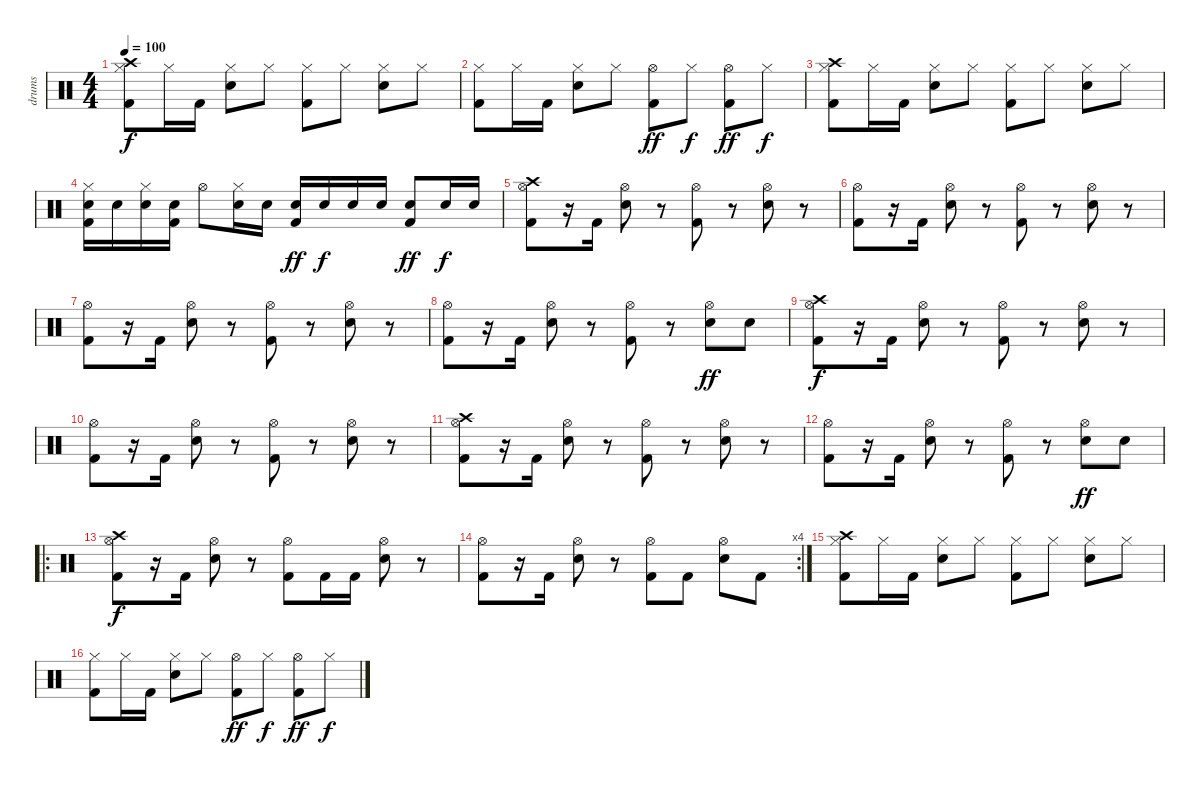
\track ("drums" "drums") {instrument percussion}
\staff {score}
\articulation defaults
\ts (4 4)
\tempo 100
\clef neutral
\ks c
("Crash high (hit)" "Hi-Hat (closed)" "Kick (hit) 2").8{dy f} "Hi-Hat (closed)".16 "Kick (hit) 2".16 ("Hi-Hat (closed)" "Snare (hit) 2").8 "Hi-Hat (closed)".8 ("Hi-Hat (closed)" "Kick (hit) 2").8 "Hi-Hat (closed)".8 ("Hi-Hat (closed)" "Snare (hit) 2").8 "Hi-Hat (closed)".8 |
("Hi-Hat (closed)" "Kick (hit) 2").8 "Hi-Hat (closed)".16 "Kick (hit) 2".16 ("Hi-Hat (closed)" "Snare (hit) 2").8 "Hi-Hat (closed)".8 ("Hi-Hat (open)" "Kick (hit) 2").8{dy ff} "Hi-Hat (closed)".8{dy f} ("Hi-Hat (open)" "Kick (hit) 2").8{dy ff} "Hi-Hat (closed)".8{dy f} |
("Crash high (hit)" "Hi-Hat (closed)" "Kick (hit) 2").8 "Hi-Hat (closed)".16 "Kick (hit) 2".16 ("Hi-Hat (closed)" "Snare (hit) 2").8 "Hi-Hat (closed)".8 ("Hi-Hat (closed)" "Kick (hit) 2").8 "Hi-Hat (closed)".8 ("Hi-Hat (closed)" "Snare (hit) 2").8 "Hi-Hat (closed)".8 |
("Hi-Hat (closed)" "Electric Snare (hit)" "Kick (hit) 2").16 "Electric Snare (hit)".16 ("Hi-Hat (closed)" "Electric Snare (hit)").16 ("Electric Snare (hit)" "Kick (hit) 2").16 "Hi-Hat (open)".8 ("Hi-Hat (closed)" "Electric Snare (hit)").16 "Electric Snare (hit)".16 ("Electric Snare (hit)" "Kick (hit) 2").16{dy ff} "Electric Snare (hit)".16{dy f} "Electric Snare (hit)".16 "Electric Snare (hit)".16 ("Electric Snare (hit)" "Kick (hit) 2").8{dy ff} "Electric Snare (hit)".16{dy f} "Electric Snare (hit)".16 |
("Crash high (hit)" "Hi-Hat (open)" "Kick (hit) 2").8 r.16 "Kick (hit) 2".16 ("Hi-Hat (open)" "Snare (hit) 2").8 r.8 ("Hi-Hat (open)" "Kick (hit) 2").8 r.8 ("Hi-Hat (open)" "Snare (hit) 2").8 r.8 |
("Hi-Hat (open)" "Kick (hit) 2").8 r.16 "Kick (hit) 2".16 ("Hi-Hat (open)" "Snare (hit) 2").8 r.8 ("Hi-Hat (open)" "Kick (hit) 2").8 r.8 ("Hi-Hat (open)" "Snare (hit) 2").8 r.8 |
("Hi-Hat (open)" "Kick (hit) 2").8 r.16 "Kick (hit) 2".16 ("Hi-Hat (open)" "Snare (hit) 2").8 r.8 ("Hi-Hat (open)" "Kick (hit) 2").8 r.8 ("Hi-Hat (open)" "Snare (hit) 2").8 r.8 |
("Hi-Hat (open)" "Kick (hit) 2").8 r.16 "Kick (hit) 2".16 ("Hi-Hat (open)" "Snare (hit) 2").8 r.8 ("Hi-Hat (open)" "Kick (hit) 2").8 r.8 ("Hi-Hat (open)" "Snare (hit) 2").8{dy ff} "Snare (hit) 2".8 |
("Crash high (hit)" "Hi-Hat (open)" "Kick (hit) 2").8{dy f} r.16 "Kick (hit) 2".16 ("Hi-Hat (open)" "Snare (hit) 2").8 r.8 ("Hi-Hat (open)" "Kick (hit) 2").8 r.8 ("Hi-Hat (open)" "Snare (hit) 2").8 r.8 |
("Hi-Hat (open)" "Kick (hit) 2").8 r.16 "Kick (hit) 2".16 ("Hi-Hat (open)" "Snare (hit) 2").8 r.8 ("Hi-Hat (open)" "Kick (hit) 2").8 r.8 ("Hi-Hat (open)" "Snare (hit) 2").8 r.8 |
("Crash high (hit)" "Hi-Hat (open)" "Kick (hit) 2").8 r.16 "Kick (hit) 2".16 ("Hi-Hat (open)" "Snare (hit) 2").8 r.8 ("Hi-Hat (open)" "Kick (hit) 2").8 r.8 ("Hi-Hat (open)" "Snare (hit) 2").8 r.8 |
("Hi-Hat (open)" "Kick (hit) 2").8 r.16 "Kick (hit) 2".16 ("Hi-Hat (open)" "Snare (hit) 2").8 r.8 ("Hi-Hat (open)" "Kick (hit) 2").8 r.8 ("Hi-Hat (open)" "Snare (hit) 2").8{dy ff} "Snare (hit) 2".8 |
\ro
("Crash high (hit)" "Hi-Hat (open)" "Kick (hit) 2").8{dy f} r.16 "Kick (hit) 2".16 ("Hi-Hat (open)" "Snare (hit) 2").8 r.8 ("Hi-Hat (open)" "Kick (hit) 2").8 "Kick (hit) 2".16 "Kick (hit) 2".16 ("Hi-Hat (open)" "Snare (hit) 2").8 r.8 |
\rc 4
("Hi-Hat (open)" "Kick (hit) 2").8 r.16 "Kick (hit) 2".16 ("Hi-Hat (open)" "Snare (hit) 2").8 r.8 ("Hi-Hat (open)" "Kick (hit) 2").8 "Kick (hit) 2".8 ("Hi-Hat (open)" "Snare (hit) 2").8 "Kick (hit) 2".8 |
("Crash high (hit)" "Hi-Hat (closed)" "Kick (hit) 2").8 "Hi-Hat (closed)".16 "Kick (hit) 2".16 ("Hi-Hat (closed)" "Snare (hit) 2").8 "Hi-Hat (closed)".8 ("Hi-Hat (closed)" "Kick (hit) 2").8 "Hi-Hat (closed)".8 ("Hi-Hat (closed)" "Snare (hit) 2").8 "Hi-Hat (closed)".8 |
("Hi-Hat (closed)" "Kick (hit) 2").8 "Hi-Hat (closed)".16 "Kick (hit) 2".16 ("Hi-Hat (closed)" "Snare (hit) 2").8 "Hi-Hat (closed)".8 ("Hi-Hat (open)" "Kick (hit) 2").8{dy ff} "Hi-Hat (closed)".8{dy f} ("Hi-Hat (open)" "Kick (hit) 2").8{dy ff} "Hi-Hat (closed)".8{dy f}
